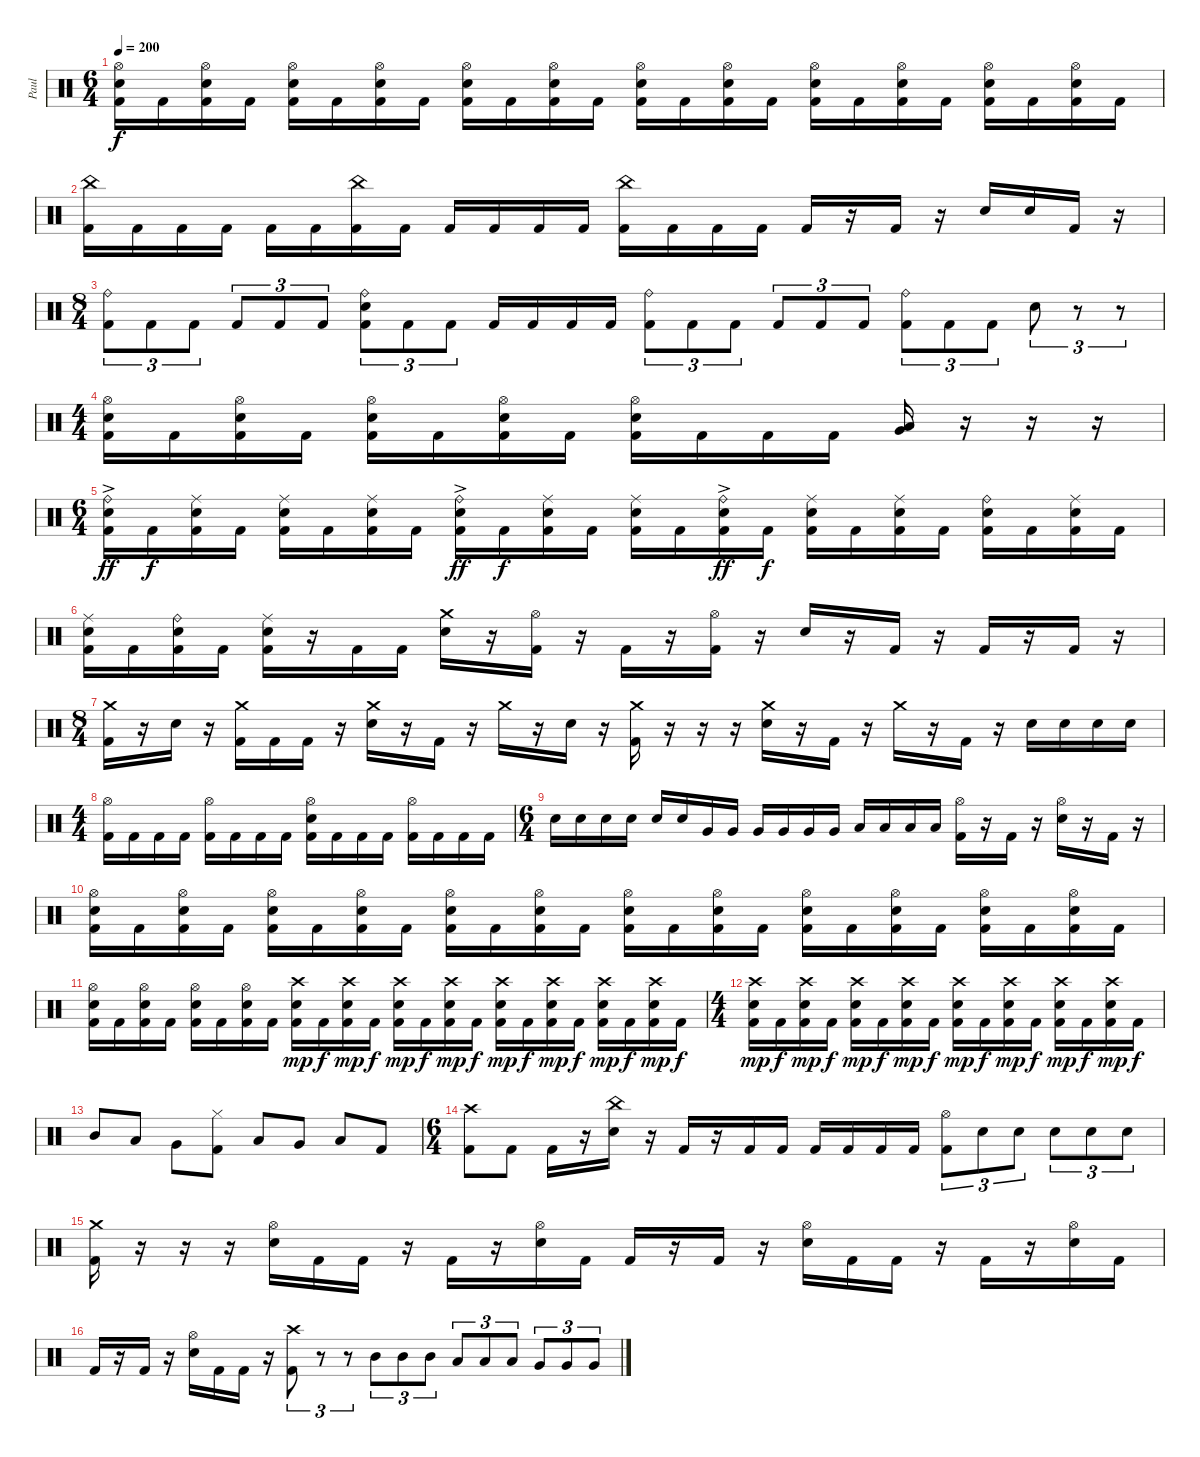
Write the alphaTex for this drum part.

\track ("Paul " "Paul ") {instrument percussion}
\staff {score}
\articulation defaults
\ts (6 4)
\tempo 200
\clef neutral
\ks c
("Kick (hit) 2" "Electric Snare (hit)" "Hi-Hat (open)").16{dy f} "Kick (hit) 2".16 ("Kick (hit) 2" "Electric Snare (hit)" "Hi-Hat (open)").16 "Kick (hit) 2".16 ("Kick (hit) 2" "Electric Snare (hit)" "Hi-Hat (open)").16 "Kick (hit) 2".16 ("Kick (hit) 2" "Electric Snare (hit)" "Hi-Hat (open)").16 "Kick (hit) 2".16 ("Kick (hit) 2" "Electric Snare (hit)" "Hi-Hat (open)").16 "Kick (hit) 2".16 ("Kick (hit) 2" "Electric Snare (hit)" "Hi-Hat (open)").16 "Kick (hit) 2".16 ("Kick (hit) 2" "Electric Snare (hit)" "Hi-Hat (open)").16 "Kick (hit) 2".16 ("Kick (hit) 2" "Electric Snare (hit)" "Hi-Hat (open)").16 "Kick (hit) 2".16 ("Kick (hit) 2" "Electric Snare (hit)" "Hi-Hat (open)").16 "Kick (hit) 2".16 ("Kick (hit) 2" "Electric Snare (hit)" "Hi-Hat (open)").16 "Kick (hit) 2".16 ("Kick (hit) 2" "Electric Snare (hit)" "Hi-Hat (open)").16 "Kick (hit) 2".16 ("Kick (hit) 2" "Electric Snare (hit)" "Hi-Hat (open)").16 "Kick (hit) 2".16 |
("Kick (hit) 2" "China (hit)").16 "Kick (hit) 2".16 "Kick (hit) 2".16 "Kick (hit) 2".16 "Kick (hit) 2".16 "Kick (hit) 2".16 ("Kick (hit) 2" "China (hit)").16 "Kick (hit) 2".16 "Kick (hit) 2".16 "Kick (hit) 2".16 "Kick (hit) 2".16 "Kick (hit) 2".16 ("Kick (hit) 2" "China (hit)").16 "Kick (hit) 2".16 "Kick (hit) 2".16 "Kick (hit) 2".16 "Kick (hit) 2".16 r.16 "Kick (hit) 2".16 r.16 "Electric Snare (hit)".16 "Electric Snare (hit)".16 "Kick (hit) 2".16 r.16 |
\ts (8 4)
("Kick (hit) 2" "Ride (bell)").8{tu (3 2)} "Kick (hit) 2".8{tu (3 2)} "Kick (hit) 2".8{tu (3 2)} "Kick (hit) 2".8{tu (3 2)} "Kick (hit) 2".8{tu (3 2)} "Kick (hit) 2".8{tu (3 2)} ("Kick (hit) 2" "Electric Snare (hit)" "Ride (bell)").8{tu (3 2)} "Kick (hit) 2".8{tu (3 2)} "Kick (hit) 2".8{tu (3 2)} "Kick (hit) 2".16 "Kick (hit) 2".16 "Kick (hit) 2".16 "Kick (hit) 2".16 ("Kick (hit) 2" "Ride (bell)").8{tu (3 2)} "Kick (hit) 2".8{tu (3 2)} "Kick (hit) 2".8{tu (3 2)} "Kick (hit) 2".8{tu (3 2)} "Kick (hit) 2".8{tu (3 2)} "Kick (hit) 2".8{tu (3 2)} ("Kick (hit) 2" "Ride (bell)").8{tu (3 2)} "Kick (hit) 2".8{tu (3 2)} "Kick (hit) 2".8{tu (3 2)} "Electric Snare (hit)".8{tu (3 2)} r.8{tu (3 2)} r.8{tu (3 2)} |
\ts (4 4)
("Kick (hit) 2" "Electric Snare (hit)" "Hi-Hat (open)").16 "Kick (hit) 2".16 ("Kick (hit) 2" "Electric Snare (hit)" "Hi-Hat (open)").16 "Kick (hit) 2".16 ("Kick (hit) 2" "Electric Snare (hit)" "Hi-Hat (open)").16 "Kick (hit) 2".16 ("Kick (hit) 2" "Electric Snare (hit)" "Hi-Hat (open)").16 "Kick (hit) 2".16 ("Kick (hit) 2" "Electric Snare (hit)" "Hi-Hat (open)").16 "Kick (hit) 2".16 "Kick (hit) 2".16 "Kick (hit) 2".16 ("Very Low Tom (hit)" "Low Floor Tom (hit)").16 r.16 r.16 r.16 |
\ts (6 4)
("Kick (hit) 2" "Ride (bell)"{ac} "Electric Snare (hit)").16{dy ff} "Kick (hit) 2".16{dy f} ("Kick (hit) 2" "Ride (middle)" "Electric Snare (hit)").16 "Kick (hit) 2".16 ("Kick (hit) 2" "Ride (middle)" "Electric Snare (hit)").16 "Kick (hit) 2".16 ("Kick (hit) 2" "Ride (middle)" "Electric Snare (hit)").16 "Kick (hit) 2".16 ("Kick (hit) 2" "Ride (bell)"{ac} "Electric Snare (hit)").16{dy ff} "Kick (hit) 2".16{dy f} ("Kick (hit) 2" "Ride (middle)" "Electric Snare (hit)").16 "Kick (hit) 2".16 ("Kick (hit) 2" "Ride (middle)" "Electric Snare (hit)").16 "Kick (hit) 2".16 ("Kick (hit) 2" "Ride (bell)"{ac} "Electric Snare (hit)").16{dy ff} "Kick (hit) 2".16{dy f} ("Kick (hit) 2" "Ride (middle)" "Electric Snare (hit)").16 "Kick (hit) 2".16 ("Kick (hit) 2" "Ride (middle)" "Electric Snare (hit)").16 "Kick (hit) 2".16 ("Kick (hit) 2" "Ride (bell)" "Electric Snare (hit)").16 "Kick (hit) 2".16 ("Kick (hit) 2" "Ride (middle)" "Electric Snare (hit)").16 "Kick (hit) 2".16 |
("Kick (hit) 2" "Ride (middle)" "Electric Snare (hit)").16 "Kick (hit) 2".16 ("Kick (hit) 2" "Ride (bell)" "Electric Snare (hit)").16 "Kick (hit) 2".16 ("Kick (hit) 2" "Ride (middle)" "Electric Snare (hit)").16 r.16 "Kick (hit) 2".16 "Kick (hit) 2".16 ("Electric Snare (hit)" "Crash medium (hit)").16 r.16 ("Kick (hit) 2" "Hi-Hat (open)").16 r.16 "Kick (hit) 2".16 r.16 ("Kick (hit) 2" "Hi-Hat (open)").16 r.16 "Electric Snare (hit)".16 r.16 "Kick (hit) 2".16 r.16 "Kick (hit) 2".16 r.16 "Kick (hit) 2".16 r.16 |
\ts (8 4)
("Kick (hit) 2" "Crash medium (hit)").16 r.16 "Electric Snare (hit)".16 r.16 ("Kick (hit) 2" "Crash medium (hit)").16 "Kick (hit) 2".16 "Kick (hit) 2".16 r.16 ("Electric Snare (hit)" "Crash medium (hit)").16 r.16 "Kick (hit) 2".16 r.16 "Crash medium (hit)".16 r.16 "Electric Snare (hit)".16 r.16 ("Kick (hit) 2" "Crash medium (hit)").16 r.16 r.16 r.16 ("Electric Snare (hit)" "Crash medium (hit)").16 r.16 "Kick (hit) 2".16 r.16 "Crash medium (hit)".16 r.16 "Kick (hit) 2".16 r.16 "Electric Snare (hit)".16 "Electric Snare (hit)".16 "Electric Snare (hit)".16 "Electric Snare (hit)".16 |
\ts (4 4)
("Kick (hit) 2" "Hi-Hat (open)").16 "Kick (hit) 2".16 "Kick (hit) 2".16 "Kick (hit) 2".16 ("Kick (hit) 2" "Hi-Hat (open)").16 "Kick (hit) 2".16 "Kick (hit) 2".16 "Kick (hit) 2".16 ("Kick (hit) 2" "Electric Snare (hit)" "Hi-Hat (open)").16 "Kick (hit) 2".16 "Kick (hit) 2".16 "Kick (hit) 2".16 ("Kick (hit) 2" "Hi-Hat (open)").16 "Kick (hit) 2".16 "Kick (hit) 2".16 "Kick (hit) 2".16 |
\ts (6 4)
"Electric Snare (hit)".16 "Electric Snare (hit)".16 "Electric Snare (hit)".16 "Electric Snare (hit)".16 "Electric Snare (hit)".16 "Electric Snare (hit)".16 "Very Low Tom (hit)".16 "Very Low Tom (hit)".16 "Very Low Tom (hit)".16 "Very Low Tom (hit)".16 "Very Low Tom (hit)".16 "Very Low Tom (hit)".16 "Low Floor Tom (hit)".16 "Low Floor Tom (hit)".16 "Low Floor Tom (hit)".16 "Low Floor Tom (hit)".16 ("Kick (hit) 2" "Hi-Hat (open)").16 r.16 "Kick (hit) 2".16 r.16 ("Electric Snare (hit)" "Hi-Hat (open)").16 r.16 "Kick (hit) 2".16 r.16 |
("Kick (hit) 2" "Electric Snare (hit)" "Hi-Hat (open)").16 "Kick (hit) 2".16 ("Kick (hit) 2" "Electric Snare (hit)" "Hi-Hat (open)").16 "Kick (hit) 2".16 ("Kick (hit) 2" "Electric Snare (hit)" "Hi-Hat (open)").16 "Kick (hit) 2".16 ("Kick (hit) 2" "Electric Snare (hit)" "Hi-Hat (open)").16 "Kick (hit) 2".16 ("Kick (hit) 2" "Electric Snare (hit)" "Hi-Hat (open)").16 "Kick (hit) 2".16 ("Kick (hit) 2" "Electric Snare (hit)" "Hi-Hat (open)").16 "Kick (hit) 2".16 ("Kick (hit) 2" "Electric Snare (hit)" "Hi-Hat (open)").16 "Kick (hit) 2".16 ("Kick (hit) 2" "Electric Snare (hit)" "Hi-Hat (open)").16 "Kick (hit) 2".16 ("Kick (hit) 2" "Electric Snare (hit)" "Hi-Hat (open)").16 "Kick (hit) 2".16 ("Kick (hit) 2" "Electric Snare (hit)" "Hi-Hat (open)").16 "Kick (hit) 2".16 ("Kick (hit) 2" "Electric Snare (hit)" "Hi-Hat (open)").16 "Kick (hit) 2".16 ("Kick (hit) 2" "Electric Snare (hit)" "Hi-Hat (open)").16 "Kick (hit) 2".16 |
("Kick (hit) 2" "Electric Snare (hit)" "Hi-Hat (open)").16 "Kick (hit) 2".16 ("Kick (hit) 2" "Electric Snare (hit)" "Hi-Hat (open)").16 "Kick (hit) 2".16 ("Kick (hit) 2" "Electric Snare (hit)" "Hi-Hat (open)").16 "Kick (hit) 2".16 ("Kick (hit) 2" "Electric Snare (hit)" "Hi-Hat (open)").16 "Kick (hit) 2".16 ("Kick (hit) 2" "Electric Snare (hit)" "Crash high (hit)").16{dy mp} "Kick (hit) 2".16{dy f} ("Kick (hit) 2" "Electric Snare (hit)" "Crash high (hit)").16{dy mp} "Kick (hit) 2".16{dy f} ("Kick (hit) 2" "Electric Snare (hit)" "Crash high (hit)").16{dy mp} "Kick (hit) 2".16{dy f} ("Kick (hit) 2" "Electric Snare (hit)" "Crash high (hit)").16{dy mp} "Kick (hit) 2".16{dy f} ("Kick (hit) 2" "Electric Snare (hit)" "Crash high (hit)").16{dy mp} "Kick (hit) 2".16{dy f} ("Kick (hit) 2" "Electric Snare (hit)" "Crash high (hit)").16{dy mp} "Kick (hit) 2".16{dy f} ("Kick (hit) 2" "Electric Snare (hit)" "Crash high (hit)").16{dy mp} "Kick (hit) 2".16{dy f} ("Kick (hit) 2" "Electric Snare (hit)" "Crash high (hit)").16{dy mp} "Kick (hit) 2".16{dy f} |
\ts (4 4)
("Kick (hit) 2" "Electric Snare (hit)" "Crash high (hit)").16{dy mp} "Kick (hit) 2".16{dy f} ("Kick (hit) 2" "Electric Snare (hit)" "Crash high (hit)").16{dy mp} "Kick (hit) 2".16{dy f} ("Kick (hit) 2" "Electric Snare (hit)" "Crash high (hit)").16{dy mp} "Kick (hit) 2".16{dy f} ("Kick (hit) 2" "Electric Snare (hit)" "Crash high (hit)").16{dy mp} "Kick (hit) 2".16{dy f} ("Kick (hit) 2" "Electric Snare (hit)" "Crash high (hit)").16{dy mp} "Kick (hit) 2".16{dy f} ("Kick (hit) 2" "Electric Snare (hit)" "Crash high (hit)").16{dy mp} "Kick (hit) 2".16{dy f} ("Kick (hit) 2" "Electric Snare (hit)" "Crash high (hit)").16{dy mp} "Kick (hit) 2".16{dy f} ("Kick (hit) 2" "Electric Snare (hit)" "Crash high (hit)").16{dy mp} "Kick (hit) 2".16{dy f} |
"Mid Tom (hit)".8 "Low Tom (hit)".8 "Very Low Tom (hit)".8 ("Kick (hit) 2" "Hi-Hat (closed)").8 "Low Tom (hit)".8 "Very Low Tom (hit)".8 "Low Floor Tom (hit)".8 "Kick (hit) 2".8 |
\ts (6 4)
("Kick (hit) 2" "Crash high (hit)").8 "Kick (hit) 2".8 "Kick (hit) 2".16 r.16 ("Electric Snare (hit)" "China (hit)").16 r.16 "Kick (hit) 2".16 r.16 "Kick (hit) 2".16 "Kick (hit) 2".16 "Kick (hit) 2".16 "Kick (hit) 2".16 "Kick (hit) 2".16 "Kick (hit) 2".16 ("Kick (hit) 2" "Hi-Hat (open)").8{tu (3 2)} "Electric Snare (hit)".8{tu (3 2)} "Electric Snare (hit)".8{tu (3 2)} "Electric Snare (hit)".8{tu (3 2)} "Electric Snare (hit)".8{tu (3 2)} "Electric Snare (hit)".8{tu (3 2)} |
("Kick (hit) 2" "Crash medium (hit)").16 r.16 r.16 r.16 ("Electric Snare (hit)" "Hi-Hat (open)").16 "Kick (hit) 2".16 "Kick (hit) 2".16 r.16 "Kick (hit) 2".16 r.16 ("Electric Snare (hit)" "Hi-Hat (open)").16 "Kick (hit) 2".16 "Kick (hit) 2".16 r.16 "Kick (hit) 2".16 r.16 ("Electric Snare (hit)" "Hi-Hat (open)").16 "Kick (hit) 2".16 "Kick (hit) 2".16 r.16 "Kick (hit) 2".16 r.16 ("Electric Snare (hit)" "Hi-Hat (open)").16 "Kick (hit) 2".16 |
"Kick (hit) 2".16 r.16 "Kick (hit) 2".16 r.16 ("Electric Snare (hit)" "Hi-Hat (open)").16 "Kick (hit) 2".16 "Kick (hit) 2".16 r.16 ("Kick (hit) 2" "Crash high (hit)").8{tu (3 2)} r.8{tu (3 2)} r.8{tu (3 2)} "Mid Tom (hit)".8{tu (3 2)} "Mid Tom (hit)".8{tu (3 2)} "Mid Tom (hit)".8{tu (3 2)} "Low Tom (hit)".8{tu (3 2)} "Low Tom (hit)".8{tu (3 2)} "Low Tom (hit)".8{tu (3 2)} "Very Low Tom (hit)".8{tu (3 2)} "Very Low Tom (hit)".8{tu (3 2)} "Very Low Tom (hit)".8{tu (3 2)}
